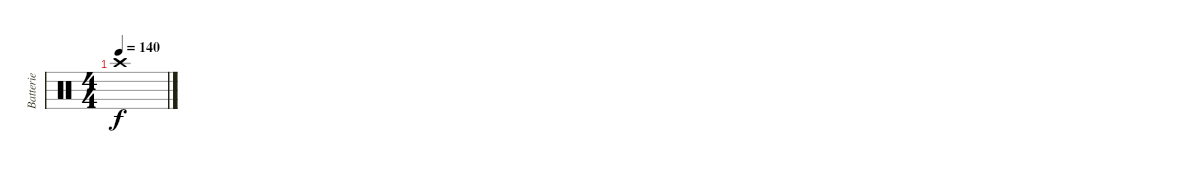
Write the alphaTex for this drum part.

\track ("Batterie" "Batterie") {instrument percussion}
\staff {score}
\articulation defaults
\ts (4 4)
\tempo 140
\clef neutral
\ks c "Crash high (hit)".1{dy f}
